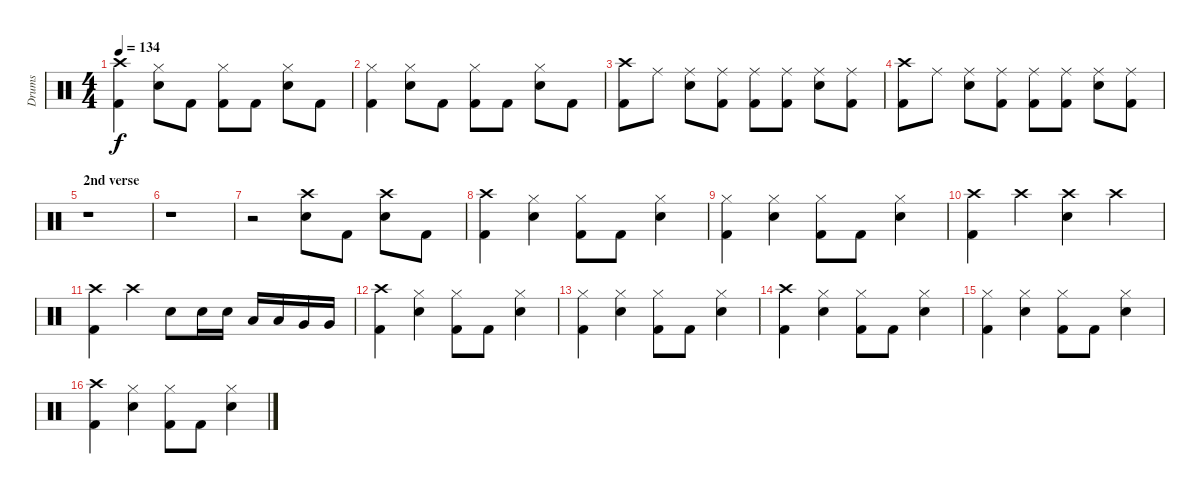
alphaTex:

\track ("Drums" "Drums") {instrument percussion}
\staff {score}
\articulation defaults
\ts (4 4)
\tempo 134
\clef neutral
\ks c
("Crash high (hit)" "Kick (hit) 2").4{dy f} ("Hi-Hat (closed)" "Electric Snare (hit)").8 "Kick (hit) 2".8 ("Hi-Hat (closed)" "Kick (hit) 2").8 "Kick (hit) 2".8 ("Hi-Hat (closed)" "Electric Snare (hit)").8 "Kick (hit) 2".8 |
("Hi-Hat (closed)" "Kick (hit) 2").4 ("Hi-Hat (closed)" "Electric Snare (hit)").8 "Kick (hit) 2".8 ("Hi-Hat (closed)" "Kick (hit) 2").8 "Kick (hit) 2".8 ("Hi-Hat (closed)" "Electric Snare (hit)").8 "Kick (hit) 2".8 |
("Crash high (hit)" "Kick (hit) 2").8 "Ride (middle)".8 ("Ride (middle)" "Electric Snare (hit)").8 ("Ride (middle)" "Kick (hit) 2").8 ("Ride (middle)" "Kick (hit) 2").8 ("Ride (middle)" "Kick (hit) 2").8 ("Ride (middle)" "Electric Snare (hit)").8 ("Ride (middle)" "Kick (hit) 2").8 |
("Crash high (hit)" "Kick (hit) 2").8 "Ride (middle)".8 ("Ride (middle)" "Electric Snare (hit)").8 ("Ride (middle)" "Kick (hit) 2").8 ("Ride (middle)" "Kick (hit) 2").8 ("Ride (middle)" "Kick (hit) 2").8 ("Ride (middle)" "Electric Snare (hit)").8 ("Ride (middle)" "Kick (hit) 2").8 |
\section ("" "2nd verse")
r.1 |
r.1 |
r.2 ("Crash high (hit)" "Electric Snare (hit)").8 "Kick (hit) 2".8 ("Crash high (hit)" "Electric Snare (hit)").8 "Kick (hit) 2".8 |
("Crash high (hit)" "Kick (hit) 2").4 ("Hi-Hat (closed)" "Electric Snare (hit)").4 ("Hi-Hat (closed)" "Kick (hit) 2").8 "Kick (hit) 2".8 ("Hi-Hat (closed)" "Electric Snare (hit)").4 |
("Hi-Hat (closed)" "Kick (hit) 2").4 ("Hi-Hat (closed)" "Electric Snare (hit)").4 ("Hi-Hat (closed)" "Kick (hit) 2").8 "Kick (hit) 2".8 ("Hi-Hat (closed)" "Electric Snare (hit)").4 |
("Crash high (hit)" "Kick (hit) 2").4 "Crash high (hit)".4 ("Crash high (hit)" "Electric Snare (hit)").4 "Crash high (hit)".4 |
("Crash high (hit)" "Kick (hit) 2").4 "Crash high (hit)".4 "Electric Snare (hit)".8 "Electric Snare (hit)".16 "Electric Snare (hit)".16 "Low Tom (hit)".16 "Low Tom (hit)".16 "Very Low Tom (hit)".16 "Very Low Tom (hit)".16 |
("Crash high (hit)" "Kick (hit) 2").4 ("Hi-Hat (closed)" "Electric Snare (hit)").4 ("Hi-Hat (closed)" "Kick (hit) 2").8 "Kick (hit) 2".8 ("Hi-Hat (closed)" "Electric Snare (hit)").4 |
("Hi-Hat (closed)" "Kick (hit) 2").4 ("Hi-Hat (closed)" "Electric Snare (hit)").4 ("Hi-Hat (closed)" "Kick (hit) 2").8 "Kick (hit) 2".8 ("Hi-Hat (closed)" "Electric Snare (hit)").4 |
("Crash high (hit)" "Kick (hit) 2").4 ("Hi-Hat (closed)" "Electric Snare (hit)").4 ("Hi-Hat (closed)" "Kick (hit) 2").8 "Kick (hit) 2".8 ("Hi-Hat (closed)" "Electric Snare (hit)").4 |
("Hi-Hat (closed)" "Kick (hit) 2").4 ("Hi-Hat (closed)" "Electric Snare (hit)").4 ("Hi-Hat (closed)" "Kick (hit) 2").8 "Kick (hit) 2".8 ("Hi-Hat (closed)" "Electric Snare (hit)").4 |
("Crash high (hit)" "Kick (hit) 2").4 ("Hi-Hat (closed)" "Electric Snare (hit)").4 ("Hi-Hat (closed)" "Kick (hit) 2").8 "Kick (hit) 2".8 ("Hi-Hat (closed)" "Electric Snare (hit)").4
